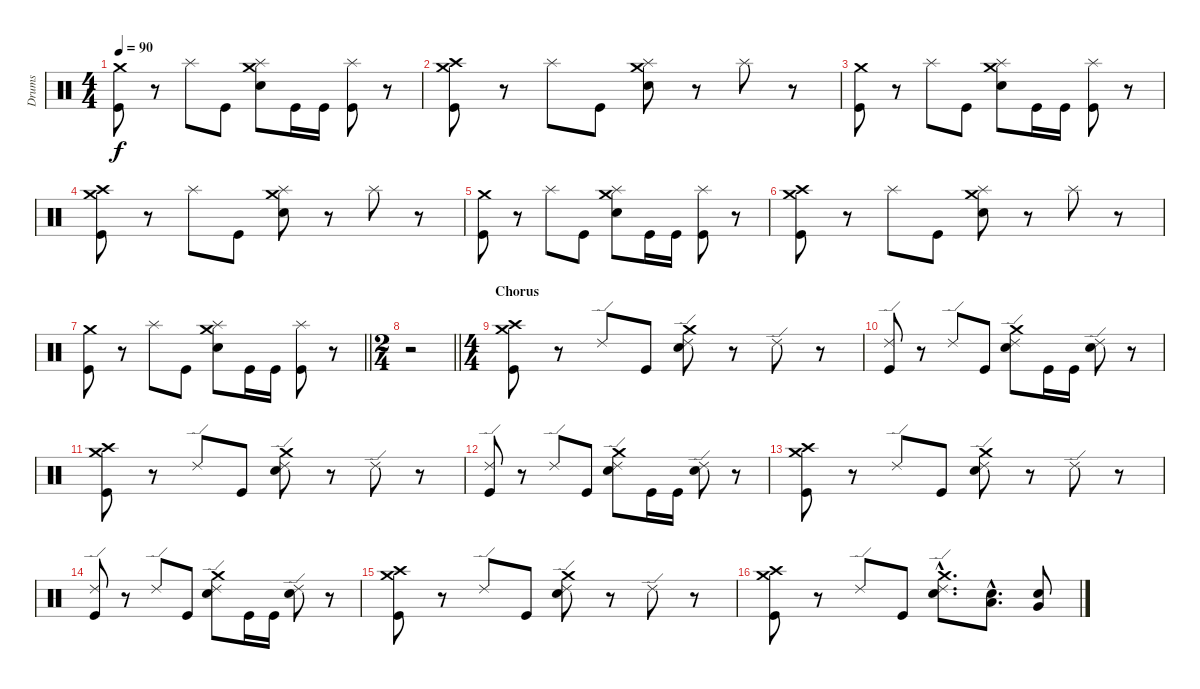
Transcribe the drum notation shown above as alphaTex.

\track ("Drums" "Drums") {instrument percussion}
\staff {score}
\articulation defaults
\ts (4 4)
\tempo 90
\clef neutral
\ks c
("Crash medium (hit)" "Kick (hit)").8{dy f} r.8 "Splash (hit)".8 "Kick (hit)".8 ("Splash (hit)" "Snare (hit) 2" "Crash medium (hit)").8 "Kick (hit)".16 "Kick (hit)".16 ("Splash (hit)" "Kick (hit)").8 r.8 |
("Crash high (hit)" "Kick (hit)" "Crash medium (hit)").8 r.8 "Splash (hit)".8 "Kick (hit)".8 ("Splash (hit)" "Snare (hit) 2" "Crash medium (hit)").8 r.8 "Splash (hit)".8 r.8 |
("Crash medium (hit)" "Kick (hit)").8 r.8 "Splash (hit)".8 "Kick (hit)".8 ("Splash (hit)" "Snare (hit) 2" "Crash medium (hit)").8 "Kick (hit)".16 "Kick (hit)".16 ("Splash (hit)" "Kick (hit)").8 r.8 |
("Crash high (hit)" "Kick (hit)" "Crash medium (hit)").8 r.8 "Splash (hit)".8 "Kick (hit)".8 ("Splash (hit)" "Snare (hit) 2" "Crash medium (hit)").8 r.8 "Splash (hit)".8 r.8 |
("Crash medium (hit)" "Kick (hit)").8 r.8 "Splash (hit)".8 "Kick (hit)".8 ("Splash (hit)" "Snare (hit) 2" "Crash medium (hit)").8 "Kick (hit)".16 "Kick (hit)".16 ("Splash (hit)" "Kick (hit)").8 r.8 |
("Crash high (hit)" "Kick (hit)" "Crash medium (hit)").8 r.8 "Splash (hit)".8 "Kick (hit)".8 ("Splash (hit)" "Snare (hit) 2" "Crash medium (hit)").8 r.8 "Splash (hit)".8 r.8 |
\barLineRight lightlight
("Crash medium (hit)" "Kick (hit)").8 r.8 "Splash (hit)".8 "Kick (hit)".8 ("Splash (hit)" "Snare (hit) 2" "Crash medium (hit)").8 "Kick (hit)".16 "Kick (hit)".16 ("Splash (hit)" "Kick (hit)").8 r.8 |
\ts (2 4)
\section ("" "")
\barLineRight lightlight
r.2 |
\ts (4 4)
\section ("" "Chorus")
("Crash high (hit)" "Kick (hit)" "Crash medium (hit)").8 r.8 "Ride (edge) 2".8 "Kick (hit)".8 ("Ride (edge) 2" "Snare (hit) 2" "Crash medium (hit)").8 r.8 "Ride (edge) 2".8 r.8 |
("Ride (edge) 2" "Kick (hit)").8 r.8 "Ride (edge) 2".8 "Kick (hit)".8 ("Ride (edge) 2" "Snare (hit) 2" "Crash medium (hit)").8 "Kick (hit)".16 "Kick (hit)".16 ("Ride (edge) 2" "Snare (hit) 2").8 r.8 |
("Crash high (hit)" "Kick (hit)" "Crash medium (hit)").8 r.8 "Ride (edge) 2".8 "Kick (hit)".8 ("Ride (edge) 2" "Snare (hit) 2" "Crash medium (hit)").8 r.8 "Ride (edge) 2".8 r.8 |
("Ride (edge) 2" "Kick (hit)").8 r.8 "Ride (edge) 2".8 "Kick (hit)".8 ("Ride (edge) 2" "Snare (hit) 2" "Crash medium (hit)").8 "Kick (hit)".16 "Kick (hit)".16 ("Ride (edge) 2" "Snare (hit) 2").8 r.8 |
("Crash high (hit)" "Kick (hit)" "Crash medium (hit)").8 r.8 "Ride (edge) 2".8 "Kick (hit)".8 ("Ride (edge) 2" "Snare (hit) 2" "Crash medium (hit)").8 r.8 "Ride (edge) 2".8 r.8 |
("Ride (edge) 2" "Kick (hit)").8 r.8 "Ride (edge) 2".8 "Kick (hit)".8 ("Ride (edge) 2" "Snare (hit) 2" "Crash medium (hit)").8 "Kick (hit)".16 "Kick (hit)".16 ("Ride (edge) 2" "Snare (hit) 2").8 r.8 |
("Crash high (hit)" "Kick (hit)" "Crash medium (hit)").8 r.8 "Ride (edge) 2".8 "Kick (hit)".8 ("Ride (edge) 2" "Snare (hit) 2" "Crash medium (hit)").8 r.8 "Ride (edge) 2".8 r.8 |
("Crash high (hit)" "Kick (hit)" "Crash medium (hit)").8 r.8 "Ride (edge) 2".8 "Kick (hit)".8 ("Ride (edge) 2"{hac} "Snare (hit) 2"{hac} "Crash medium (hit)"{hac}).8{d} ("Snare (hit) 2"{hac} "Low Tom (hit)"{hac}).8{d} ("Snare (hit) 2" "Very Low Tom (hit)").8
